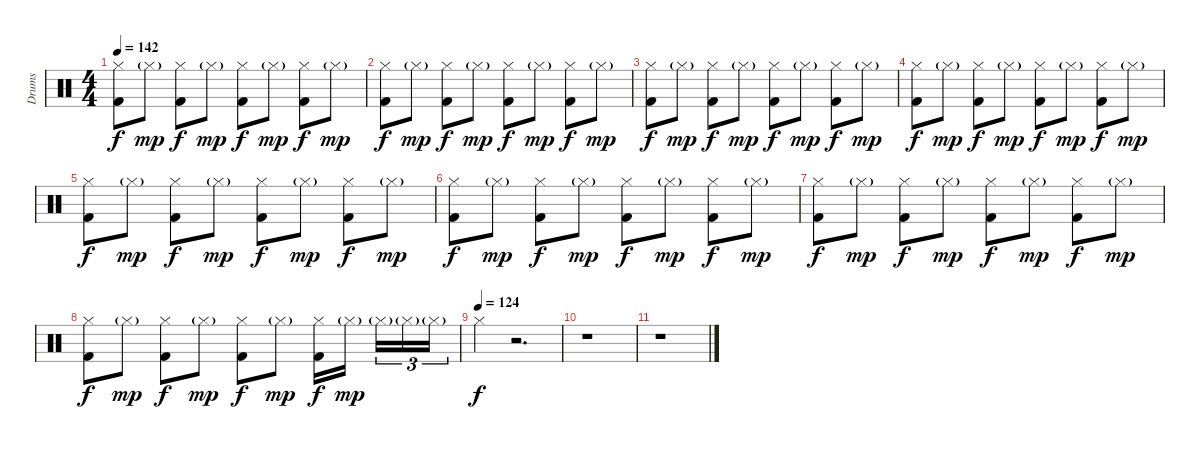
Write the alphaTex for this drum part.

\track ("Drums" "Drums") {instrument percussion}
\staff {score}
\articulation defaults
\ts (4 4)
\tempo 142
\clef neutral
\ks c
("Hi-Hat (closed)" "Kick (hit) 2").8{dy f} "Hi-Hat (closed)"{g}.8{dy mp} ("Hi-Hat (closed)" "Kick (hit) 2").8{dy f} "Hi-Hat (closed)"{g}.8{dy mp} ("Hi-Hat (closed)" "Kick (hit) 2").8{dy f} "Hi-Hat (closed)"{g}.8{dy mp} ("Hi-Hat (closed)" "Kick (hit) 2").8{dy f} "Hi-Hat (closed)"{g}.8{dy mp} |
("Hi-Hat (closed)" "Kick (hit) 2").8{dy f} "Hi-Hat (closed)"{g}.8{dy mp} ("Hi-Hat (closed)" "Kick (hit) 2").8{dy f} "Hi-Hat (closed)"{g}.8{dy mp} ("Hi-Hat (closed)" "Kick (hit) 2").8{dy f} "Hi-Hat (closed)"{g}.8{dy mp} ("Hi-Hat (closed)" "Kick (hit) 2").8{dy f} "Hi-Hat (closed)"{g}.8{dy mp} |
("Hi-Hat (closed)" "Kick (hit) 2").8{dy f} "Hi-Hat (closed)"{g}.8{dy mp} ("Hi-Hat (closed)" "Kick (hit) 2").8{dy f} "Hi-Hat (closed)"{g}.8{dy mp} ("Hi-Hat (closed)" "Kick (hit) 2").8{dy f} "Hi-Hat (closed)"{g}.8{dy mp} ("Hi-Hat (closed)" "Kick (hit) 2").8{dy f} "Hi-Hat (closed)"{g}.8{dy mp} |
("Hi-Hat (closed)" "Kick (hit) 2").8{dy f} "Hi-Hat (closed)"{g}.8{dy mp} ("Hi-Hat (closed)" "Kick (hit) 2").8{dy f} "Hi-Hat (closed)"{g}.8{dy mp} ("Hi-Hat (closed)" "Kick (hit) 2").8{dy f} "Hi-Hat (closed)"{g}.8{dy mp} ("Hi-Hat (closed)" "Kick (hit) 2").8{dy f} "Hi-Hat (closed)"{g}.8{dy mp} |
("Hi-Hat (closed)" "Kick (hit) 2").8{dy f} "Hi-Hat (closed)"{g}.8{dy mp} ("Hi-Hat (closed)" "Kick (hit) 2").8{dy f} "Hi-Hat (closed)"{g}.8{dy mp} ("Hi-Hat (closed)" "Kick (hit) 2").8{dy f} "Hi-Hat (closed)"{g}.8{dy mp} ("Hi-Hat (closed)" "Kick (hit) 2").8{dy f} "Hi-Hat (closed)"{g}.8{dy mp} |
("Hi-Hat (closed)" "Kick (hit) 2").8{dy f} "Hi-Hat (closed)"{g}.8{dy mp} ("Hi-Hat (closed)" "Kick (hit) 2").8{dy f} "Hi-Hat (closed)"{g}.8{dy mp} ("Hi-Hat (closed)" "Kick (hit) 2").8{dy f} "Hi-Hat (closed)"{g}.8{dy mp} ("Hi-Hat (closed)" "Kick (hit) 2").8{dy f} "Hi-Hat (closed)"{g}.8{dy mp} |
("Hi-Hat (closed)" "Kick (hit) 2").8{dy f} "Hi-Hat (closed)"{g}.8{dy mp} ("Hi-Hat (closed)" "Kick (hit) 2").8{dy f} "Hi-Hat (closed)"{g}.8{dy mp} ("Hi-Hat (closed)" "Kick (hit) 2").8{dy f} "Hi-Hat (closed)"{g}.8{dy mp} ("Hi-Hat (closed)" "Kick (hit) 2").8{dy f} "Hi-Hat (closed)"{g}.8{dy mp} |
("Hi-Hat (closed)" "Kick (hit) 2").8{dy f} "Hi-Hat (closed)"{g}.8{dy mp} ("Hi-Hat (closed)" "Kick (hit) 2").8{dy f} "Hi-Hat (closed)"{g}.8{dy mp} ("Hi-Hat (closed)" "Kick (hit) 2").8{dy f} "Hi-Hat (closed)"{g}.8{dy mp} ("Hi-Hat (closed)" "Kick (hit) 2").16{dy f} "Hi-Hat (closed)"{g}.16{dy mp beam splitsecondary} "Hi-Hat (closed)"{g}.16{tu (3 2)} "Hi-Hat (closed)"{g}.16{tu (3 2)} "Hi-Hat (closed)"{g}.16{tu (3 2)} |
\tempo (124)
"Hi-Hat (closed)".4{dy f} r.2{d} |
r.1 |
r.1
